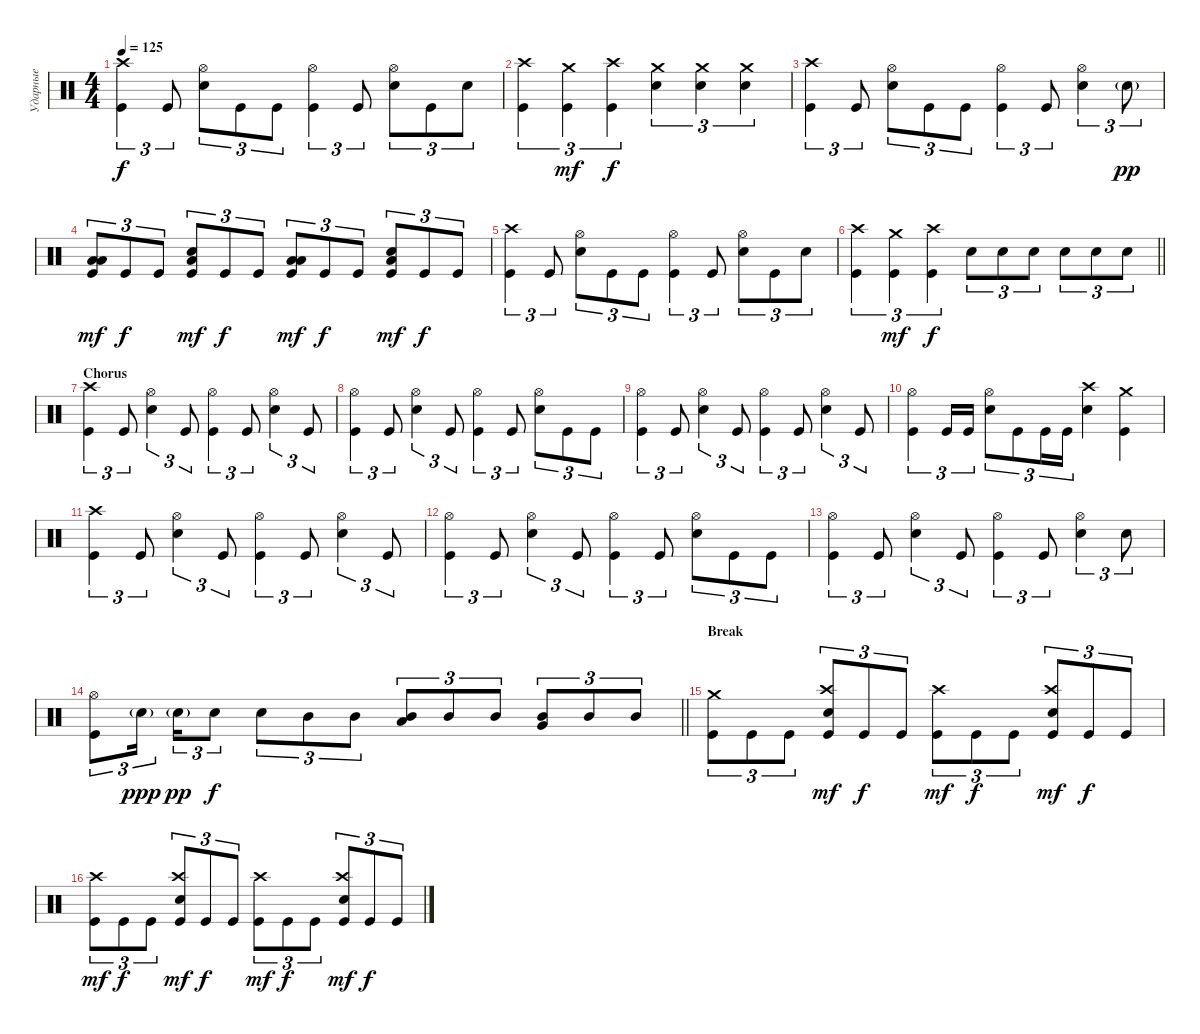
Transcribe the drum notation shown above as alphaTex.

\track ("Ударные" "Ударные") {instrument percussion}
\staff {score}
\articulation defaults
\ts (4 4)
\tempo 125
\clef neutral
\ks c
("Kick (hit)" "Crash high (hit)").4{tu (3 2) dy f} "Kick (hit)".8{tu (3 2)} ("Snare (hit) 2" "Hi-Hat (open)").8{tu (3 2)} "Kick (hit)".8{tu (3 2)} "Kick (hit)".8{tu (3 2)} ("Kick (hit)" "Hi-Hat (open)").4{tu (3 2)} "Kick (hit)".8{tu (3 2)} ("Snare (hit) 2" "Hi-Hat (open)").8{tu (3 2)} "Kick (hit)".8{tu (3 2)} "Snare (hit) 2".8{tu (3 2)} |
("Kick (hit)" "Crash high (hit)").4{tu (3 2)} ("Kick (hit)" "Crash medium (hit)").4{tu (3 2) dy mf} ("Kick (hit)" "Crash high (hit)").4{tu (3 2) dy f} ("Snare (hit) 2" "Crash medium (hit)").4{tu (3 2)} ("Crash medium (hit)" "Snare (hit) 2").4{tu (3 2)} ("Snare (hit) 2" "Crash medium (hit)").4{tu (3 2)} |
("Kick (hit)" "Crash high (hit)").4{tu (3 2)} "Kick (hit)".8{tu (3 2)} ("Snare (hit) 2" "Hi-Hat (open)").8{tu (3 2)} "Kick (hit)".8{tu (3 2)} "Kick (hit)".8{tu (3 2)} ("Kick (hit)" "Hi-Hat (open)").4{tu (3 2)} "Kick (hit)".8{tu (3 2)} ("Snare (hit) 2" "Hi-Hat (open)").4{tu (3 2)} "Snare (hit) 2"{g}.8{tu (3 2) dy pp} |
("Kick (hit)" "Low Floor Tom (hit)" "Low Tom (hit)").8{tu (3 2) bd 120 dy mf} "Kick (hit)".8{tu (3 2) dy f} "Kick (hit)".8{tu (3 2)} ("Kick (hit)" "Snare (hit) 2" "Low Floor Tom (hit)").8{tu (3 2) bd 120 dy mf} "Kick (hit)".8{tu (3 2) dy f} "Kick (hit)".8{tu (3 2)} ("Kick (hit)" "Low Floor Tom (hit)" "Low Tom (hit)").8{tu (3 2) bd 120 dy mf} "Kick (hit)".8{tu (3 2) dy f} "Kick (hit)".8{tu (3 2)} ("Kick (hit)" "Snare (hit) 2" "Low Floor Tom (hit)").8{tu (3 2) bd 120 dy mf} "Kick (hit)".8{tu (3 2) dy f} "Kick (hit)".8{tu (3 2)} |
("Kick (hit)" "Crash high (hit)").4{tu (3 2)} "Kick (hit)".8{tu (3 2)} ("Snare (hit) 2" "Hi-Hat (open)").8{tu (3 2)} "Kick (hit)".8{tu (3 2)} "Kick (hit)".8{tu (3 2)} ("Kick (hit)" "Hi-Hat (open)").4{tu (3 2)} "Kick (hit)".8{tu (3 2)} ("Snare (hit) 2" "Hi-Hat (open)").8{tu (3 2)} "Kick (hit)".8{tu (3 2)} "Snare (hit) 2".8{tu (3 2)} |
\barLineRight lightlight
("Kick (hit)" "Crash high (hit)").4{tu (3 2)} ("Kick (hit)" "Crash medium (hit)").4{tu (3 2) dy mf} ("Kick (hit)" "Crash high (hit)").4{tu (3 2) dy f} "Snare (hit) 2".8{tu (3 2)} "Snare (hit) 2".8{tu (3 2)} "Snare (hit) 2".8{tu (3 2)} "Snare (hit) 2".8{tu (3 2)} "Snare (hit) 2".8{tu (3 2)} "Snare (hit) 2".8{tu (3 2)} |
\section ("" "Chorus")
("Kick (hit)" "Crash high (hit)").4{tu (3 2)} "Kick (hit)".8{tu (3 2)} ("Snare (hit) 2" "Hi-Hat (open)").4{tu (3 2)} "Kick (hit)".8{tu (3 2)} ("Kick (hit)" "Hi-Hat (open)").4{tu (3 2)} "Kick (hit)".8{tu (3 2)} ("Snare (hit) 2" "Hi-Hat (open)").4{tu (3 2)} "Kick (hit)".8{tu (3 2)} |
("Kick (hit)" "Hi-Hat (open)").4{tu (3 2)} "Kick (hit)".8{tu (3 2)} ("Snare (hit) 2" "Hi-Hat (open)").4{tu (3 2)} "Kick (hit)".8{tu (3 2)} ("Kick (hit)" "Hi-Hat (open)").4{tu (3 2)} "Kick (hit)".8{tu (3 2)} ("Snare (hit) 2" "Hi-Hat (open)").8{tu (3 2)} "Kick (hit)".8{tu (3 2)} "Kick (hit)".8{tu (3 2)} |
("Kick (hit)" "Hi-Hat (open)").4{tu (3 2)} "Kick (hit)".8{tu (3 2)} ("Snare (hit) 2" "Hi-Hat (open)").4{tu (3 2)} "Kick (hit)".8{tu (3 2)} ("Kick (hit)" "Hi-Hat (open)").4{tu (3 2)} "Kick (hit)".8{tu (3 2)} ("Snare (hit) 2" "Hi-Hat (open)").4{tu (3 2)} "Kick (hit)".8{tu (3 2)} |
("Kick (hit)" "Hi-Hat (open)").4{tu (3 2)} "Kick (hit)".16{tu (3 2)} "Kick (hit)".16{tu (3 2)} ("Snare (hit) 2" "Hi-Hat (open)").8{tu (3 2)} "Kick (hit)".8{tu (3 2)} "Kick (hit)".16{tu (3 2)} "Kick (hit)".16{tu (3 2)} ("Snare (hit) 2" "Crash high (hit)").4 ("Kick (hit)" "Crash medium (hit)").4 |
("Kick (hit)" "Crash high (hit)").4{tu (3 2)} "Kick (hit)".8{tu (3 2)} ("Snare (hit) 2" "Hi-Hat (open)").4{tu (3 2)} "Kick (hit)".8{tu (3 2)} ("Kick (hit)" "Hi-Hat (open)").4{tu (3 2)} "Kick (hit)".8{tu (3 2)} ("Snare (hit) 2" "Hi-Hat (open)").4{tu (3 2)} "Kick (hit)".8{tu (3 2)} |
("Kick (hit)" "Hi-Hat (open)").4{tu (3 2)} "Kick (hit)".8{tu (3 2)} ("Snare (hit) 2" "Hi-Hat (open)").4{tu (3 2)} "Kick (hit)".8{tu (3 2)} ("Kick (hit)" "Hi-Hat (open)").4{tu (3 2)} "Kick (hit)".8{tu (3 2)} ("Snare (hit) 2" "Hi-Hat (open)").8{tu (3 2)} "Kick (hit)".8{tu (3 2)} "Kick (hit)".8{tu (3 2)} |
("Kick (hit)" "Hi-Hat (open)").4{tu (3 2)} "Kick (hit)".8{tu (3 2)} ("Snare (hit) 2" "Hi-Hat (open)").4{tu (3 2)} "Kick (hit)".8{tu (3 2)} ("Kick (hit)" "Hi-Hat (open)").4{tu (3 2)} "Kick (hit)".8{tu (3 2)} ("Snare (hit) 2" "Hi-Hat (open)").4{tu (3 2)} "Snare (hit) 2".8{tu (3 2)} |
\barLineRight lightlight
("Kick (hit)" "Hi-Hat (open)").8{tu (3 2)} "Snare (hit) 2"{g}.16{tu (3 2) dy ppp beam splitsecondary} "Snare (hit) 2"{g}.16{tu (3 2) dy pp} "Snare (hit) 2".8{tu (3 2) dy f} "Snare (hit) 2".8{tu (3 2)} "Mid Tom (hit)".8{tu (3 2)} "Mid Tom (hit)".8{tu (3 2)} ("Low Tom (hit)" "Mid Tom (hit)").8{tu (3 2) bd 120} "Mid Tom (hit)".8{tu (3 2)} "Mid Tom (hit)".8{tu (3 2)} ("Mid Tom (hit)" "Very Low Tom (hit)").8{tu (3 2) bd 120} "Mid Tom (hit)".8{tu (3 2)} "Mid Tom (hit)".8{tu (3 2)} |
\section ("" "Break")
("Kick (hit)" "Crash medium (hit)").8{tu (3 2)} "Kick (hit)".8{tu (3 2)} "Kick (hit)".8{tu (3 2)} ("Kick (hit)" "Snare (hit) 2" "Crash high (hit)").8{tu (3 2) dy mf} "Kick (hit)".8{tu (3 2) dy f} "Kick (hit)".8{tu (3 2)} ("Kick (hit)" "Crash high (hit)").8{tu (3 2) dy mf} "Kick (hit)".8{tu (3 2) dy f} "Kick (hit)".8{tu (3 2)} ("Kick (hit)" "Snare (hit) 2" "Crash high (hit)").8{tu (3 2) dy mf} "Kick (hit)".8{tu (3 2) dy f} "Kick (hit)".8{tu (3 2)} |
("Kick (hit)" "Crash high (hit)").8{tu (3 2) dy mf} "Kick (hit)".8{tu (3 2) dy f} "Kick (hit)".8{tu (3 2)} ("Kick (hit)" "Snare (hit) 2" "Crash high (hit)").8{tu (3 2) dy mf} "Kick (hit)".8{tu (3 2) dy f} "Kick (hit)".8{tu (3 2)} ("Kick (hit)" "Crash high (hit)").8{tu (3 2) dy mf} "Kick (hit)".8{tu (3 2) dy f} "Kick (hit)".8{tu (3 2)} ("Kick (hit)" "Snare (hit) 2" "Crash high (hit)").8{tu (3 2) dy mf} "Kick (hit)".8{tu (3 2) dy f} "Kick (hit)".8{tu (3 2)}
